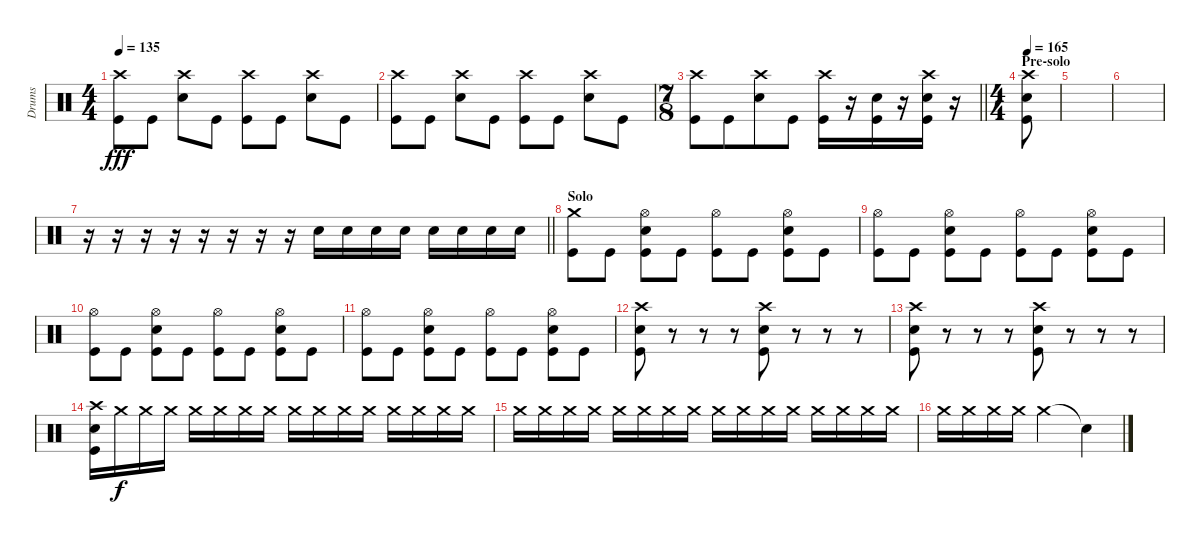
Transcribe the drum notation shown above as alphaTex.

\track ("Drums" "Drums") {instrument percussion}
\staff {score}
\articulation defaults
\ts (4 4)
\tempo 135
\clef neutral
\ks c
("Crash high (hit)" "Kick (hit)").8{dy fff} "Kick (hit)".8 ("Crash high (hit)" "Snare (hit) 2").8 "Kick (hit)".8 ("Crash high (hit)" "Kick (hit)").8 "Kick (hit)".8 ("Crash high (hit)" "Snare (hit) 2").8 "Kick (hit)".8 |
("Crash high (hit)" "Kick (hit)").8 "Kick (hit)".8 ("Crash high (hit)" "Snare (hit) 2").8 "Kick (hit)".8 ("Crash high (hit)" "Kick (hit)").8 "Kick (hit)".8 ("Crash high (hit)" "Snare (hit) 2").8 "Kick (hit)".8 |
\ts (7 8)
\barLineRight lightlight
("Crash high (hit)" "Kick (hit)").8 "Kick (hit)".8 ("Crash high (hit)" "Snare (hit) 2").8 "Kick (hit)".8 ("Crash high (hit)" "Kick (hit)").16 r.16 ("Snare (hit) 2" "Kick (hit)").16 r.16 ("Crash high (hit)" "Snare (hit) 2" "Kick (hit)").16 r.16 |
\ts (4 4)
\section ("" "Pre-solo")
\tempo 165
("Crash high (hit)" "Snare (hit) 2" "Kick (hit)").8 |
|
|
\barLineRight lightlight
r.16 r.16 r.16 r.16 r.16 r.16 r.16 r.16 "Snare (hit) 2".16 "Snare (hit) 2".16 "Snare (hit) 2".16 "Snare (hit) 2".16 "Snare (hit) 2".16 "Snare (hit) 2".16 "Snare (hit) 2".16 "Snare (hit) 2".16 |
\section ("" "Solo")
("Crash medium (hit)" "Kick (hit)").8 "Kick (hit)".8 ("Hi-Hat (open)" "Snare (hit) 2" "Kick (hit)").8 "Kick (hit)".8 ("Hi-Hat (open)" "Kick (hit)").8 "Kick (hit)".8 ("Hi-Hat (open)" "Snare (hit) 2" "Kick (hit)").8 "Kick (hit)".8 |
("Hi-Hat (open)" "Kick (hit)").8 "Kick (hit)".8 ("Hi-Hat (open)" "Snare (hit) 2" "Kick (hit)").8 "Kick (hit)".8 ("Hi-Hat (open)" "Kick (hit)").8 "Kick (hit)".8 ("Hi-Hat (open)" "Snare (hit) 2" "Kick (hit)").8 "Kick (hit)".8 |
("Hi-Hat (open)" "Kick (hit)").8 "Kick (hit)".8 ("Hi-Hat (open)" "Snare (hit) 2" "Kick (hit)").8 "Kick (hit)".8 ("Hi-Hat (open)" "Kick (hit)").8 "Kick (hit)".8 ("Hi-Hat (open)" "Snare (hit) 2" "Kick (hit)").8 "Kick (hit)".8 |
("Hi-Hat (open)" "Kick (hit)").8 "Kick (hit)".8 ("Hi-Hat (open)" "Snare (hit) 2" "Kick (hit)").8 "Kick (hit)".8 ("Hi-Hat (open)" "Kick (hit)").8 "Kick (hit)".8 ("Hi-Hat (open)" "Snare (hit) 2" "Kick (hit)").8 "Kick (hit)".8 |
("Crash high (hit)" "Snare (hit) 2" "Kick (hit)").8 r.8 r.8 r.8 ("Crash high (hit)" "Snare (hit) 2" "Kick (hit)").8 r.8 r.8 r.8 |
("Crash high (hit)" "Snare (hit) 2" "Kick (hit)").8 r.8 r.8 r.8 ("Crash high (hit)" "Snare (hit) 2" "Kick (hit)").8 r.8 r.8 r.8 |
("Crash high (hit)" "Snare (hit) 2" "Kick (hit)").16 "Crash medium (hit)".16{dy f} "Crash medium (hit)".16 "Crash medium (hit)".16 "Crash medium (hit)".16 "Crash medium (hit)".16 "Crash medium (hit)".16 "Crash medium (hit)".16 "Crash medium (hit)".16 "Crash medium (hit)".16 "Crash medium (hit)".16 "Crash medium (hit)".16 "Crash medium (hit)".16 "Crash medium (hit)".16 "Crash medium (hit)".16 "Crash medium (hit)".16 |
"Crash medium (hit)".16 "Crash medium (hit)".16 "Crash medium (hit)".16 "Crash medium (hit)".16 "Crash medium (hit)".16 "Crash medium (hit)".16 "Crash medium (hit)".16 "Crash medium (hit)".16 "Crash medium (hit)".16 "Crash medium (hit)".16 "Crash medium (hit)".16 "Crash medium (hit)".16 "Crash medium (hit)".16 "Crash medium (hit)".16 "Crash medium (hit)".16 "Crash medium (hit)".16 |
"Crash medium (hit)".16 "Crash medium (hit)".16 "Crash medium (hit)".16 "Crash medium (hit)".16 "Crash medium (hit)".2 "Snare (hit)"{t}.4
